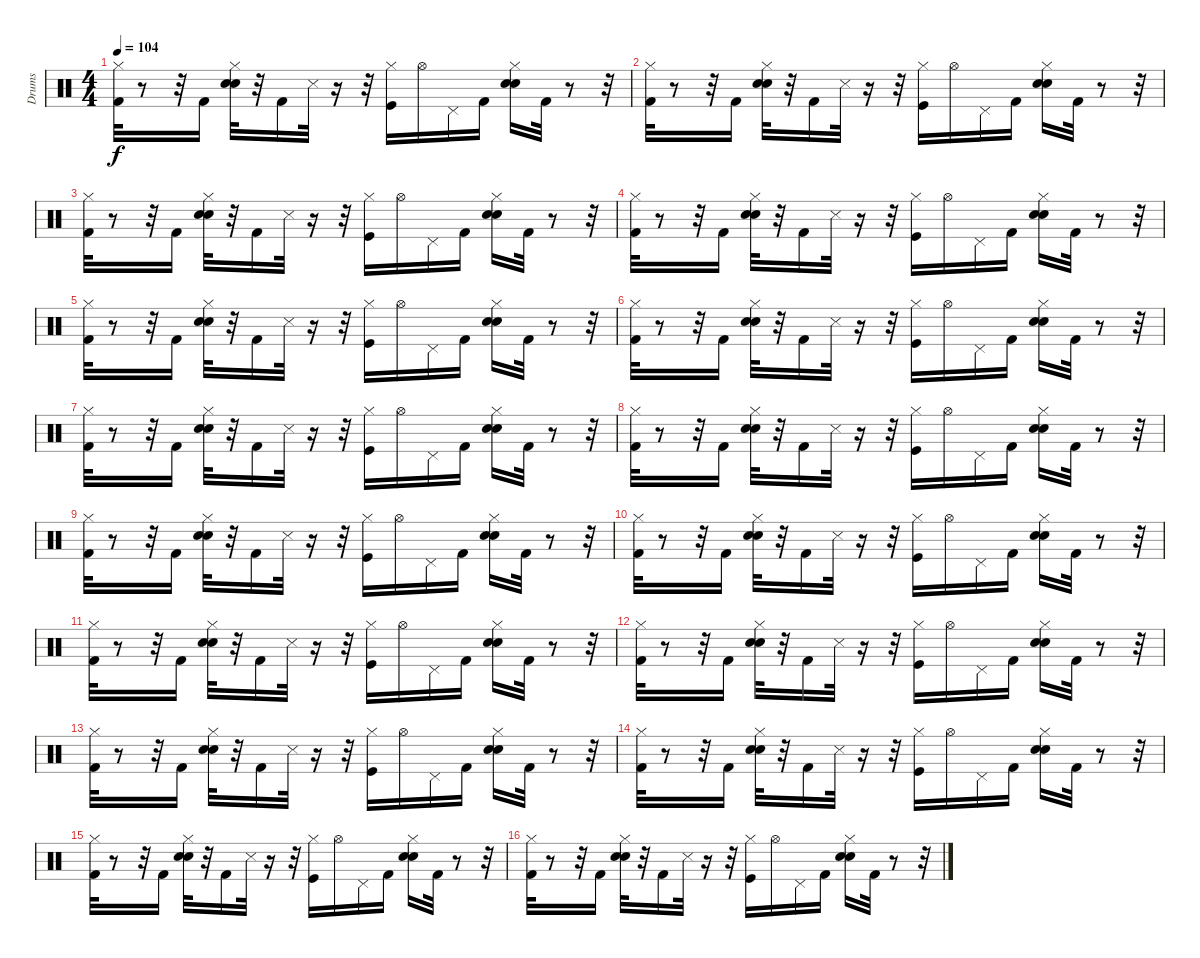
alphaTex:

\track ("Drums" "Drums") {instrument percussion}
\staff {score}
\articulation defaults
\ts (4 4)
\tempo 104
\clef neutral
\ks c
("Kick (hit) 2" "Hi-Hat (closed)").32{dy f} r.8 r.32 "Kick (hit) 2".16 ("Electric Snare (hit)" "Snare (hit) 2" "Hi-Hat (closed)").32 r.32 "Kick (hit) 2".16 "Snare (side stick) 3".32 r.16 r.32 ("Kick (hit)" "Hi-Hat (closed)").16 "Hi-Hat (open)".16 "Pedal Hi-Hat (hit)".16 "Kick (hit) 2".16 ("Electric Snare (hit)" "Snare (hit) 2" "Hi-Hat (closed)").16 "Kick (hit) 2".32 r.8 r.32 |
("Kick (hit) 2" "Hi-Hat (closed)").32 r.8 r.32 "Kick (hit) 2".16 ("Electric Snare (hit)" "Snare (hit) 2" "Hi-Hat (closed)").32 r.32 "Kick (hit) 2".16 "Snare (side stick) 3".32 r.16 r.32 ("Kick (hit)" "Hi-Hat (closed)").16 "Hi-Hat (open)".16 "Pedal Hi-Hat (hit)".16 "Kick (hit) 2".16 ("Electric Snare (hit)" "Snare (hit) 2" "Hi-Hat (closed)").16 "Kick (hit) 2".32 r.8 r.32 |
("Kick (hit) 2" "Hi-Hat (closed)").32 r.8 r.32 "Kick (hit) 2".16 ("Electric Snare (hit)" "Snare (hit) 2" "Hi-Hat (closed)").32 r.32 "Kick (hit) 2".16 "Snare (side stick) 3".32 r.16 r.32 ("Kick (hit)" "Hi-Hat (closed)").16 "Hi-Hat (open)".16 "Pedal Hi-Hat (hit)".16 "Kick (hit) 2".16 ("Electric Snare (hit)" "Snare (hit) 2" "Hi-Hat (closed)").16 "Kick (hit) 2".32 r.8 r.32 |
("Kick (hit) 2" "Hi-Hat (closed)").32 r.8 r.32 "Kick (hit) 2".16 ("Electric Snare (hit)" "Snare (hit) 2" "Hi-Hat (closed)").32 r.32 "Kick (hit) 2".16 "Snare (side stick) 3".32 r.16 r.32 ("Kick (hit)" "Hi-Hat (closed)").16 "Hi-Hat (open)".16 "Pedal Hi-Hat (hit)".16 "Kick (hit) 2".16 ("Electric Snare (hit)" "Snare (hit) 2" "Hi-Hat (closed)").16 "Kick (hit) 2".32 r.8 r.32 |
("Kick (hit) 2" "Hi-Hat (closed)").32 r.8 r.32 "Kick (hit) 2".16 ("Electric Snare (hit)" "Snare (hit) 2" "Hi-Hat (closed)").32 r.32 "Kick (hit) 2".16 "Snare (side stick) 3".32 r.16 r.32 ("Kick (hit)" "Hi-Hat (closed)").16 "Hi-Hat (open)".16 "Pedal Hi-Hat (hit)".16 "Kick (hit) 2".16 ("Electric Snare (hit)" "Snare (hit) 2" "Hi-Hat (closed)").16 "Kick (hit) 2".32 r.8 r.32 |
("Kick (hit) 2" "Hi-Hat (closed)").32 r.8 r.32 "Kick (hit) 2".16 ("Electric Snare (hit)" "Snare (hit) 2" "Hi-Hat (closed)").32 r.32 "Kick (hit) 2".16 "Snare (side stick) 3".32 r.16 r.32 ("Kick (hit)" "Hi-Hat (closed)").16 "Hi-Hat (open)".16 "Pedal Hi-Hat (hit)".16 "Kick (hit) 2".16 ("Electric Snare (hit)" "Snare (hit) 2" "Hi-Hat (closed)").16 "Kick (hit) 2".32 r.8 r.32 |
("Kick (hit) 2" "Hi-Hat (closed)").32 r.8 r.32 "Kick (hit) 2".16 ("Electric Snare (hit)" "Snare (hit) 2" "Hi-Hat (closed)").32 r.32 "Kick (hit) 2".16 "Snare (side stick) 3".32 r.16 r.32 ("Kick (hit)" "Hi-Hat (closed)").16 "Hi-Hat (open)".16 "Pedal Hi-Hat (hit)".16 "Kick (hit) 2".16 ("Electric Snare (hit)" "Snare (hit) 2" "Hi-Hat (closed)").16 "Kick (hit) 2".32 r.8 r.32 |
("Kick (hit) 2" "Hi-Hat (closed)").32 r.8 r.32 "Kick (hit) 2".16 ("Electric Snare (hit)" "Snare (hit) 2" "Hi-Hat (closed)").32 r.32 "Kick (hit) 2".16 "Snare (side stick) 3".32 r.16 r.32 ("Kick (hit)" "Hi-Hat (closed)").16 "Hi-Hat (open)".16 "Pedal Hi-Hat (hit)".16 "Kick (hit) 2".16 ("Electric Snare (hit)" "Snare (hit) 2" "Hi-Hat (closed)").16 "Kick (hit) 2".32 r.8 r.32 |
("Kick (hit) 2" "Hi-Hat (closed)").32 r.8 r.32 "Kick (hit) 2".16 ("Electric Snare (hit)" "Snare (hit) 2" "Hi-Hat (closed)").32 r.32 "Kick (hit) 2".16 "Snare (side stick) 3".32 r.16 r.32 ("Kick (hit)" "Hi-Hat (closed)").16 "Hi-Hat (open)".16 "Pedal Hi-Hat (hit)".16 "Kick (hit) 2".16 ("Electric Snare (hit)" "Snare (hit) 2" "Hi-Hat (closed)").16 "Kick (hit) 2".32 r.8 r.32 |
("Kick (hit) 2" "Hi-Hat (closed)").32 r.8 r.32 "Kick (hit) 2".16 ("Electric Snare (hit)" "Snare (hit) 2" "Hi-Hat (closed)").32 r.32 "Kick (hit) 2".16 "Snare (side stick) 3".32 r.16 r.32 ("Kick (hit)" "Hi-Hat (closed)").16 "Hi-Hat (open)".16 "Pedal Hi-Hat (hit)".16 "Kick (hit) 2".16 ("Electric Snare (hit)" "Snare (hit) 2" "Hi-Hat (closed)").16 "Kick (hit) 2".32 r.8 r.32 |
("Kick (hit) 2" "Hi-Hat (closed)").32 r.8 r.32 "Kick (hit) 2".16 ("Electric Snare (hit)" "Snare (hit) 2" "Hi-Hat (closed)").32 r.32 "Kick (hit) 2".16 "Snare (side stick) 3".32 r.16 r.32 ("Kick (hit)" "Hi-Hat (closed)").16 "Hi-Hat (open)".16 "Pedal Hi-Hat (hit)".16 "Kick (hit) 2".16 ("Electric Snare (hit)" "Snare (hit) 2" "Hi-Hat (closed)").16 "Kick (hit) 2".32 r.8 r.32 |
("Kick (hit) 2" "Hi-Hat (closed)").32 r.8 r.32 "Kick (hit) 2".16 ("Electric Snare (hit)" "Snare (hit) 2" "Hi-Hat (closed)").32 r.32 "Kick (hit) 2".16 "Snare (side stick) 3".32 r.16 r.32 ("Kick (hit)" "Hi-Hat (closed)").16 "Hi-Hat (open)".16 "Pedal Hi-Hat (hit)".16 "Kick (hit) 2".16 ("Electric Snare (hit)" "Snare (hit) 2" "Hi-Hat (closed)").16 "Kick (hit) 2".32 r.8 r.32 |
("Kick (hit) 2" "Hi-Hat (closed)").32 r.8 r.32 "Kick (hit) 2".16 ("Electric Snare (hit)" "Snare (hit) 2" "Hi-Hat (closed)").32 r.32 "Kick (hit) 2".16 "Snare (side stick) 3".32 r.16 r.32 ("Kick (hit)" "Hi-Hat (closed)").16 "Hi-Hat (open)".16 "Pedal Hi-Hat (hit)".16 "Kick (hit) 2".16 ("Electric Snare (hit)" "Snare (hit) 2" "Hi-Hat (closed)").16 "Kick (hit) 2".32 r.8 r.32 |
("Kick (hit) 2" "Hi-Hat (closed)").32 r.8 r.32 "Kick (hit) 2".16 ("Electric Snare (hit)" "Snare (hit) 2" "Hi-Hat (closed)").32 r.32 "Kick (hit) 2".16 "Snare (side stick) 3".32 r.16 r.32 ("Kick (hit)" "Hi-Hat (closed)").16 "Hi-Hat (open)".16 "Pedal Hi-Hat (hit)".16 "Kick (hit) 2".16 ("Electric Snare (hit)" "Snare (hit) 2" "Hi-Hat (closed)").16 "Kick (hit) 2".32 r.8 r.32 |
("Kick (hit) 2" "Hi-Hat (closed)").32 r.8 r.32 "Kick (hit) 2".16 ("Electric Snare (hit)" "Snare (hit) 2" "Hi-Hat (closed)").32 r.32 "Kick (hit) 2".16 "Snare (side stick) 3".32 r.16 r.32 ("Kick (hit)" "Hi-Hat (closed)").16 "Hi-Hat (open)".16 "Pedal Hi-Hat (hit)".16 "Kick (hit) 2".16 ("Electric Snare (hit)" "Snare (hit) 2" "Hi-Hat (closed)").16 "Kick (hit) 2".32 r.8 r.32 |
("Kick (hit) 2" "Hi-Hat (closed)").32 r.8 r.32 "Kick (hit) 2".16 ("Electric Snare (hit)" "Snare (hit) 2" "Hi-Hat (closed)").32 r.32 "Kick (hit) 2".16 "Snare (side stick) 3".32 r.16 r.32 ("Kick (hit)" "Hi-Hat (closed)").16 "Hi-Hat (open)".16 "Pedal Hi-Hat (hit)".16 "Kick (hit) 2".16 ("Electric Snare (hit)" "Snare (hit) 2" "Hi-Hat (closed)").16 "Kick (hit) 2".32 r.8 r.32
